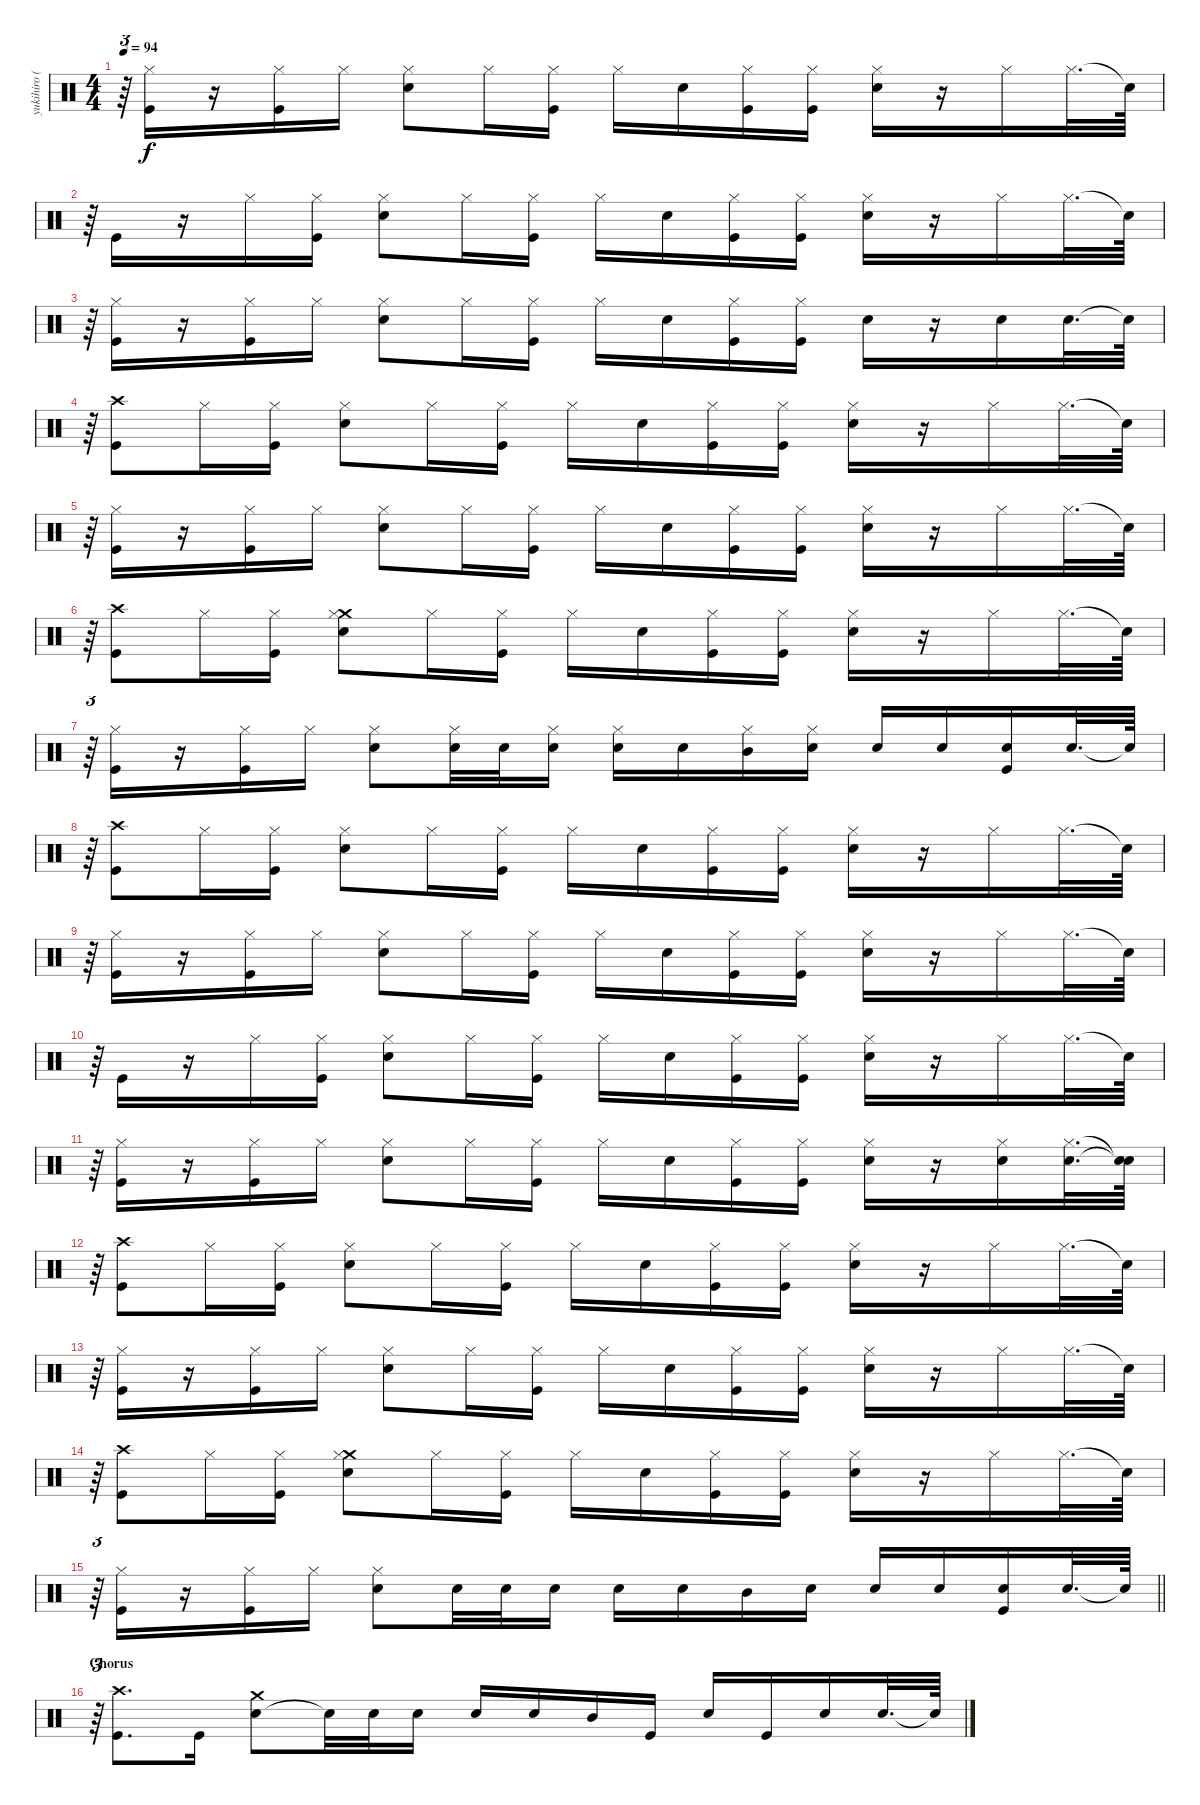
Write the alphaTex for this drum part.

\track ("yukihiro (Drums)" "yukihiro (") {instrument percussion}
\staff {score}
\articulation defaults
\ts (4 4)
\tempo 94
\clef neutral
\ks c
r.64{tu (3 2) dy f} ("Kick (hit)" "Hi-Hat (closed)").16 r.16 ("Kick (hit)" "Hi-Hat (closed)").16 "Hi-Hat (closed)".16 ("Electric Snare (hit)" "Hi-Hat (closed)").8 "Hi-Hat (closed)".16 ("Kick (hit)" "Hi-Hat (closed)").16 "Hi-Hat (closed)".16 "Electric Snare (hit)".16 ("Kick (hit)" "Hi-Hat (closed)").16 ("Kick (hit)" "Hi-Hat (closed)").16 ("Electric Snare (hit)" "Hi-Hat (closed)").16 r.16 "Hi-Hat (closed)".16 "Hi-Hat (closed)".32{d} "Snare (hit)"{t}.64 |
r.64{tu (3 2)} "Kick (hit)".16 r.16 "Hi-Hat (closed)".16 ("Kick (hit)" "Hi-Hat (closed)").16 ("Electric Snare (hit)" "Hi-Hat (closed)").8 "Hi-Hat (closed)".16 ("Kick (hit)" "Hi-Hat (closed)").16 "Hi-Hat (closed)".16 "Electric Snare (hit)".16 ("Kick (hit)" "Hi-Hat (closed)").16 ("Kick (hit)" "Hi-Hat (closed)").16 ("Electric Snare (hit)" "Hi-Hat (closed)").16 r.16 "Hi-Hat (closed)".16 "Hi-Hat (closed)".32{d} "Snare (hit)"{t}.64 |
r.64{tu (3 2)} ("Kick (hit)" "Hi-Hat (closed)").16 r.16 ("Kick (hit)" "Hi-Hat (closed)").16 "Hi-Hat (closed)".16 ("Electric Snare (hit)" "Hi-Hat (closed)").8 "Hi-Hat (closed)".16 ("Kick (hit)" "Hi-Hat (closed)").16 "Hi-Hat (closed)".16 "Electric Snare (hit)".16 ("Kick (hit)" "Hi-Hat (closed)").16 ("Kick (hit)" "Hi-Hat (closed)").16 "Electric Snare (hit)".16 r.16 "Electric Snare (hit)".16 "Electric Snare (hit)".32{d} "Snare (hit)"{t}.64 |
r.64{tu (3 2)} ("Crash high (hit)" "Kick (hit)").8 "Hi-Hat (closed)".16 ("Kick (hit)" "Hi-Hat (closed)").16 ("Electric Snare (hit)" "Hi-Hat (closed)").8 "Hi-Hat (closed)".16 ("Kick (hit)" "Hi-Hat (closed)").16 "Hi-Hat (closed)".16 "Electric Snare (hit)".16 ("Kick (hit)" "Hi-Hat (closed)").16 ("Kick (hit)" "Hi-Hat (closed)").16 ("Electric Snare (hit)" "Hi-Hat (closed)").16 r.16 "Hi-Hat (closed)".16 "Hi-Hat (closed)".32{d} "Snare (hit)"{t}.64 |
r.64{tu (3 2)} ("Kick (hit)" "Hi-Hat (closed)").16 r.16 ("Kick (hit)" "Hi-Hat (closed)").16 "Hi-Hat (closed)".16 ("Electric Snare (hit)" "Hi-Hat (closed)").8 "Hi-Hat (closed)".16 ("Kick (hit)" "Hi-Hat (closed)").16 "Hi-Hat (closed)".16 "Electric Snare (hit)".16 ("Kick (hit)" "Hi-Hat (closed)").16 ("Kick (hit)" "Hi-Hat (closed)").16 ("Electric Snare (hit)" "Hi-Hat (closed)").16 r.16 "Hi-Hat (closed)".16 "Hi-Hat (closed)".32{d} "Snare (hit)"{t}.64 |
r.64{tu (3 2)} ("Crash high (hit)" "Kick (hit)").8 "Hi-Hat (closed)".16 ("Kick (hit)" "Hi-Hat (closed)").16 ("Crash medium (hit)" "Electric Snare (hit)" "Hi-Hat (closed)").8 "Hi-Hat (closed)".16 ("Kick (hit)" "Hi-Hat (closed)").16 "Hi-Hat (closed)".16 "Electric Snare (hit)".16 ("Kick (hit)" "Hi-Hat (closed)").16 ("Kick (hit)" "Hi-Hat (closed)").16 ("Electric Snare (hit)" "Hi-Hat (closed)").16 r.16 "Hi-Hat (closed)".16 "Hi-Hat (closed)".32{d} "Snare (hit)"{t}.64 |
r.64{tu (3 2)} ("Kick (hit)" "Hi-Hat (closed)").16 r.16 ("Kick (hit)" "Hi-Hat (closed)").16 "Hi-Hat (closed)".16 ("Electric Snare (hit)" "Hi-Hat (closed)").8 ("Electric Snare (hit)" "Hi-Hat (closed)").32 "Electric Snare (hit)".32 ("Electric Snare (hit)" "Hi-Hat (closed)").16 ("Electric Snare (hit)" "Hi-Hat (closed)").16 "Electric Snare (hit)".16 ("Mid Tom (hit)" "Hi-Hat (closed)").16 ("Electric Snare (hit)" "Hi-Hat (closed)").16 "Electric Snare (hit)".16 "Electric Snare (hit)".16 ("Kick (hit)" "Electric Snare (hit)").16 "Electric Snare (hit)".32{d} "Snare (hit)"{t}.64 |
r.64{tu (3 2)} ("Crash high (hit)" "Kick (hit)").8 "Hi-Hat (closed)".16 ("Kick (hit)" "Hi-Hat (closed)").16 ("Electric Snare (hit)" "Hi-Hat (closed)").8 "Hi-Hat (closed)".16 ("Kick (hit)" "Hi-Hat (closed)").16 "Hi-Hat (closed)".16 "Electric Snare (hit)".16 ("Kick (hit)" "Hi-Hat (closed)").16 ("Kick (hit)" "Hi-Hat (closed)").16 ("Electric Snare (hit)" "Hi-Hat (closed)").16 r.16 "Hi-Hat (closed)".16 "Hi-Hat (closed)".32{d} "Snare (hit)"{t}.64 |
r.64{tu (3 2)} ("Kick (hit)" "Hi-Hat (closed)").16 r.16 ("Kick (hit)" "Hi-Hat (closed)").16 "Hi-Hat (closed)".16 ("Electric Snare (hit)" "Hi-Hat (closed)").8 "Hi-Hat (closed)".16 ("Kick (hit)" "Hi-Hat (closed)").16 "Hi-Hat (closed)".16 "Electric Snare (hit)".16 ("Kick (hit)" "Hi-Hat (closed)").16 ("Kick (hit)" "Hi-Hat (closed)").16 ("Electric Snare (hit)" "Hi-Hat (closed)").16 r.16 "Hi-Hat (closed)".16 "Hi-Hat (closed)".32{d} "Snare (hit)"{t}.64 |
r.64{tu (3 2)} "Kick (hit)".16 r.16 "Hi-Hat (closed)".16 ("Kick (hit)" "Hi-Hat (closed)").16 ("Electric Snare (hit)" "Hi-Hat (closed)").8 "Hi-Hat (closed)".16 ("Kick (hit)" "Hi-Hat (closed)").16 "Hi-Hat (closed)".16 "Electric Snare (hit)".16 ("Kick (hit)" "Hi-Hat (closed)").16 ("Kick (hit)" "Hi-Hat (closed)").16 ("Electric Snare (hit)" "Hi-Hat (closed)").16 r.16 "Hi-Hat (closed)".16 "Hi-Hat (closed)".32{d} "Snare (hit)"{t}.64 |
r.64{tu (3 2)} ("Kick (hit)" "Hi-Hat (closed)").16 r.16 ("Kick (hit)" "Hi-Hat (closed)").16 "Hi-Hat (closed)".16 ("Electric Snare (hit)" "Hi-Hat (closed)").8 "Hi-Hat (closed)".16 ("Kick (hit)" "Hi-Hat (closed)").16 "Hi-Hat (closed)".16 "Electric Snare (hit)".16 ("Kick (hit)" "Hi-Hat (closed)").16 ("Kick (hit)" "Hi-Hat (closed)").16 ("Electric Snare (hit)" "Hi-Hat (closed)").16 r.16 ("Electric Snare (hit)" "Hi-Hat (closed)").16 ("Electric Snare (hit)" "Hi-Hat (closed)").32{d} ("Snare (hit)"{t} "Snare (hit)"{t}).64 |
r.64{tu (3 2)} ("Kick (hit)" "Crash high (hit)").8 "Hi-Hat (closed)".16 ("Kick (hit)" "Hi-Hat (closed)").16 ("Electric Snare (hit)" "Hi-Hat (closed)").8 "Hi-Hat (closed)".16 ("Kick (hit)" "Hi-Hat (closed)").16 "Hi-Hat (closed)".16 "Electric Snare (hit)".16 ("Kick (hit)" "Hi-Hat (closed)").16 ("Kick (hit)" "Hi-Hat (closed)").16 ("Electric Snare (hit)" "Hi-Hat (closed)").16 r.16 "Hi-Hat (closed)".16 "Hi-Hat (closed)".32{d} "Snare (hit)"{t}.64 |
r.64{tu (3 2)} ("Kick (hit)" "Hi-Hat (closed)").16 r.16 ("Kick (hit)" "Hi-Hat (closed)").16 "Hi-Hat (closed)".16 ("Electric Snare (hit)" "Hi-Hat (closed)").8 "Hi-Hat (closed)".16 ("Kick (hit)" "Hi-Hat (closed)").16 "Hi-Hat (closed)".16 "Electric Snare (hit)".16 ("Kick (hit)" "Hi-Hat (closed)").16 ("Kick (hit)" "Hi-Hat (closed)").16 ("Electric Snare (hit)" "Hi-Hat (closed)").16 r.16 "Hi-Hat (closed)".16 "Hi-Hat (closed)".32{d} "Snare (hit)"{t}.64 |
r.64{tu (3 2)} ("Crash high (hit)" "Kick (hit)").8 "Hi-Hat (closed)".16 ("Kick (hit)" "Hi-Hat (closed)").16 ("Electric Snare (hit)" "Crash medium (hit)" "Hi-Hat (closed)").8 "Hi-Hat (closed)".16 ("Kick (hit)" "Hi-Hat (closed)").16 "Hi-Hat (closed)".16 "Electric Snare (hit)".16 ("Kick (hit)" "Hi-Hat (closed)").16 ("Kick (hit)" "Hi-Hat (closed)").16 ("Electric Snare (hit)" "Hi-Hat (closed)").16 r.16 "Hi-Hat (closed)".16 "Hi-Hat (closed)".32{d} "Snare (hit)"{t}.64 |
\barLineRight lightlight
r.64{tu (3 2)} ("Kick (hit)" "Hi-Hat (closed)").16 r.16 ("Kick (hit)" "Hi-Hat (closed)").16 "Hi-Hat (closed)".16 ("Electric Snare (hit)" "Hi-Hat (closed)").8 "Electric Snare (hit)".32 "Electric Snare (hit)".32 "Electric Snare (hit)".16 "Electric Snare (hit)".16 "Electric Snare (hit)".16 "Mid Tom (hit)".16 "Electric Snare (hit)".16 "Electric Snare (hit)".16 "Electric Snare (hit)".16 ("Kick (hit)" "Electric Snare (hit)").16 "Electric Snare (hit)".32{d} "Snare (hit)"{t}.64 |
\section ("" "Chorus")
r.64{tu (3 2)} ("Kick (hit)" "Crash high (hit)").8{d} "Kick (hit)".16 ("Electric Snare (hit)" "Crash medium (hit)").8 "Snare (hit)"{t}.32 "Electric Snare (hit)".32 "Electric Snare (hit)".16 "Electric Snare (hit)".16 "Electric Snare (hit)".16 "Mid Tom (hit)".16 "Kick (hit)".16 "Electric Snare (hit)".16 "Kick (hit)".16 "Electric Snare (hit)".16 "Electric Snare (hit)".32{d} "Snare (hit)"{t}.64
